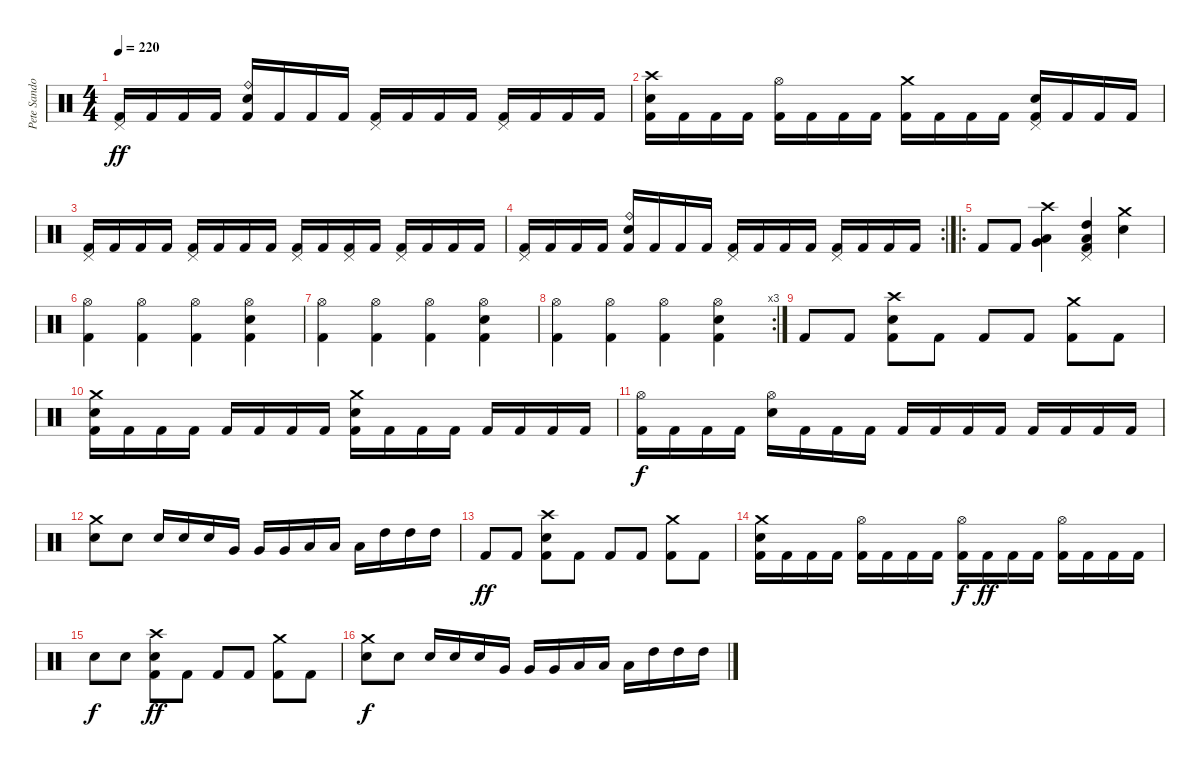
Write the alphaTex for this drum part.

\track ("Pete Sandoval" "Pete Sando") {instrument percussion}
\staff {score}
\articulation defaults
\ts (4 4)
\tempo 220
\clef neutral
\ks c
("Pedal Hi-Hat (hit)" "Kick (hit) 2").16{dy ff} "Kick (hit) 2".16 "Kick (hit) 2".16 "Kick (hit) 2".16 ("Ride (bell)" "Electric Snare (hit)" "Kick (hit) 2").16 "Kick (hit) 2".16 "Kick (hit) 2".16 "Kick (hit) 2".16 ("Pedal Hi-Hat (hit)" "Kick (hit) 2").16 "Kick (hit) 2".16 "Kick (hit) 2".16 "Kick (hit) 2".16 ("Pedal Hi-Hat (hit)" "Kick (hit) 2").16 "Kick (hit) 2".16 "Kick (hit) 2".16 "Kick (hit) 2".16 |
("Crash high (hit)" "Electric Snare (hit)" "Kick (hit) 2").16 "Kick (hit) 2".16 "Kick (hit) 2".16 "Kick (hit) 2".16 ("Hi-Hat (open)" "Kick (hit) 2").16 "Kick (hit) 2".16 "Kick (hit) 2".16 "Kick (hit) 2".16 ("Crash medium (hit)" "Kick (hit) 2").16 "Kick (hit) 2".16 "Kick (hit) 2".16 "Kick (hit) 2".16 ("Pedal Hi-Hat (hit)" "Electric Snare (hit)" "Kick (hit) 2").16 "Kick (hit) 2".16 "Kick (hit) 2".16 "Kick (hit) 2".16 |
("Pedal Hi-Hat (hit)" "Kick (hit) 2").16 "Kick (hit) 2".16 "Kick (hit) 2".16 "Kick (hit) 2".16 ("Pedal Hi-Hat (hit)" "Kick (hit) 2").16 "Kick (hit) 2".16 "Kick (hit) 2".16 "Kick (hit) 2".16 ("Pedal Hi-Hat (hit)" "Kick (hit) 2").16 "Kick (hit) 2".16 ("Pedal Hi-Hat (hit)" "Kick (hit) 2").16 "Kick (hit) 2".16 ("Pedal Hi-Hat (hit)" "Kick (hit) 2").16 "Kick (hit) 2".16 "Kick (hit) 2".16 "Kick (hit) 2".16 |
\rc 2
("Pedal Hi-Hat (hit)" "Kick (hit) 2").16 "Kick (hit) 2".16 "Kick (hit) 2".16 "Kick (hit) 2".16 ("Ride (bell)" "Electric Snare (hit)" "Kick (hit) 2").16 "Kick (hit) 2".16 "Kick (hit) 2".16 "Kick (hit) 2".16 ("Pedal Hi-Hat (hit)" "Kick (hit) 2").16 "Kick (hit) 2".16 "Kick (hit) 2".16 "Kick (hit) 2".16 ("Pedal Hi-Hat (hit)" "Kick (hit) 2").16 "Kick (hit) 2".16 "Kick (hit) 2".16 "Kick (hit) 2".16 |
\ro "Kick (hit) 2".8 "Kick (hit) 2".8
("Crash high (hit)" "Low Tom (hit)" "Very Low Tom (hit)").4 ("Pedal Hi-Hat (hit)" "High Tom (hit)" "Low Tom (hit)" "Kick (hit) 2").4 ("Crash medium (hit)" "Electric Snare (hit)").4 |
("Hi-Hat (open)" "Kick (hit) 2").4 ("Hi-Hat (open)" "Kick (hit) 2").4 ("Hi-Hat (open)" "Kick (hit) 2").4 ("Hi-Hat (open)" "Electric Snare (hit)" "Kick (hit) 2").4 |
("Hi-Hat (open)" "Kick (hit) 2").4 ("Hi-Hat (open)" "Kick (hit) 2").4 ("Hi-Hat (open)" "Kick (hit) 2").4 ("Hi-Hat (open)" "Electric Snare (hit)" "Kick (hit) 2").4 |
\rc 3
("Hi-Hat (open)" "Kick (hit) 2").4 ("Hi-Hat (open)" "Kick (hit) 2").4 ("Hi-Hat (open)" "Kick (hit) 2").4 ("Hi-Hat (open)" "Electric Snare (hit)" "Kick (hit) 2").4 |
"Kick (hit) 2".8 "Kick (hit) 2".8 ("Crash high (hit)" "Electric Snare (hit)" "Kick (hit) 2").8 "Kick (hit) 2".8 "Kick (hit) 2".8 "Kick (hit) 2".8 ("Crash medium (hit)" "Kick (hit) 2").8 "Kick (hit) 2".8 |
("Crash medium (hit)" "Electric Snare (hit)" "Kick (hit) 2").16 "Kick (hit) 2".16 "Kick (hit) 2".16 "Kick (hit) 2".16 "Kick (hit) 2".16 "Kick (hit) 2".16 "Kick (hit) 2".16 "Kick (hit) 2".16 ("Crash medium (hit)" "Electric Snare (hit)" "Kick (hit) 2").16 "Kick (hit) 2".16 "Kick (hit) 2".16 "Kick (hit) 2".16 "Kick (hit) 2".16 "Kick (hit) 2".16 "Kick (hit) 2".16 "Kick (hit) 2".16 |
("Hi-Hat (open)" "Kick (hit) 2").16{dy f} "Kick (hit) 2".16 "Kick (hit) 2".16 "Kick (hit) 2".16 ("Hi-Hat (open)" "Electric Snare (hit)").16 "Kick (hit) 2".16 "Kick (hit) 2".16 "Kick (hit) 2".16 "Kick (hit) 2".16 "Kick (hit) 2".16 "Kick (hit) 2".16 "Kick (hit) 2".16 "Kick (hit) 2".16 "Kick (hit) 2".16 "Kick (hit) 2".16 "Kick (hit) 2".16 |
("Crash medium (hit)" "Electric Snare (hit)").8 "Electric Snare (hit)".8 "Electric Snare (hit)".16 "Electric Snare (hit)".16 "Electric Snare (hit)".16 "Very Low Tom (hit)".16 "Very Low Tom (hit)".16 "Very Low Tom (hit)".16 "Low Tom (hit)".16 "Low Tom (hit)".16 "Low Tom (hit)".16 "High Tom (hit)".16 "High Tom (hit)".16 "High Tom (hit)".16 |
"Kick (hit) 2".8{dy ff} "Kick (hit) 2".8 ("Crash high (hit)" "Electric Snare (hit)" "Kick (hit) 2").8 "Kick (hit) 2".8 "Kick (hit) 2".8 "Kick (hit) 2".8 ("Crash medium (hit)" "Kick (hit) 2").8 "Kick (hit) 2".8 |
("Crash medium (hit)" "Electric Snare (hit)" "Kick (hit) 2").16 "Kick (hit) 2".16 "Kick (hit) 2".16 "Kick (hit) 2".16 ("Hi-Hat (open)" "Kick (hit) 2").16 "Kick (hit) 2".16 "Kick (hit) 2".16 "Kick (hit) 2".16 ("Hi-Hat (open)" "Kick (hit) 2").16{dy f} "Kick (hit) 2".16{dy ff} "Kick (hit) 2".16 "Kick (hit) 2".16 ("Hi-Hat (open)" "Kick (hit) 2").16 "Kick (hit) 2".16 "Kick (hit) 2".16 "Kick (hit) 2".16 |
"Electric Snare (hit)".8{dy f} "Electric Snare (hit)".8 ("Crash high (hit)" "Electric Snare (hit)" "Kick (hit) 2").8{dy ff} "Kick (hit) 2".8 "Kick (hit) 2".8 "Kick (hit) 2".8 ("Crash medium (hit)" "Kick (hit) 2").8 "Kick (hit) 2".8 |
("Crash medium (hit)" "Electric Snare (hit)").8{dy f} "Electric Snare (hit)".8 "Electric Snare (hit)".16 "Electric Snare (hit)".16 "Electric Snare (hit)".16 "Very Low Tom (hit)".16 "Very Low Tom (hit)".16 "Very Low Tom (hit)".16 "Low Tom (hit)".16 "Low Tom (hit)".16 "Low Tom (hit)".16 "High Tom (hit)".16 "High Tom (hit)".16 "High Tom (hit)".16
